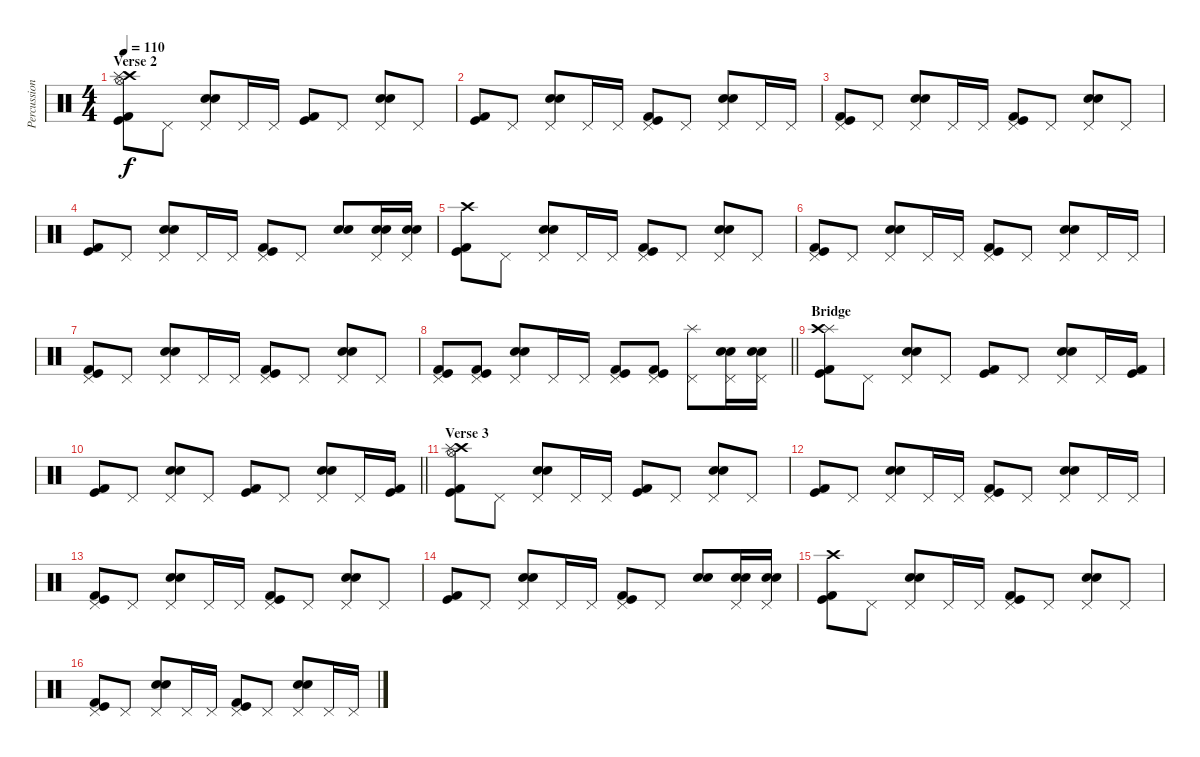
\track ("Percussion" "Percussion") {instrument percussion}
\staff {score}
\articulation defaults
\ts (4 4)
\section ("" "Verse 2")
\tempo 110
\clef neutral
\ks c
("Crash high (hit)" "Splash (hit)" "Hi-Hat (open)" "Kick (hit)" "Kick (hit) 2").8{dy f} "Pedal Hi-Hat (hit)".8 ("Snare (hit) 2" "Pedal Hi-Hat (hit)" "Electric Snare (hit)").8 "Pedal Hi-Hat (hit)".16 "Pedal Hi-Hat (hit)".16 ("Kick (hit)" "Kick (hit) 2").8 "Pedal Hi-Hat (hit)".8 ("Snare (hit) 2" "Pedal Hi-Hat (hit)" "Electric Snare (hit)").8 "Pedal Hi-Hat (hit)".8 |
("Kick (hit)" "Kick (hit) 2").8 "Pedal Hi-Hat (hit)".8 ("Snare (hit) 2" "Pedal Hi-Hat (hit)" "Electric Snare (hit)").8 "Pedal Hi-Hat (hit)".16 "Pedal Hi-Hat (hit)".16 ("Pedal Hi-Hat (hit)" "Kick (hit)" "Kick (hit) 2").8 "Pedal Hi-Hat (hit)".8 ("Snare (hit) 2" "Pedal Hi-Hat (hit)" "Electric Snare (hit)").8 "Pedal Hi-Hat (hit)".16 "Pedal Hi-Hat (hit)".16 |
("Pedal Hi-Hat (hit)" "Kick (hit)" "Kick (hit) 2").8 "Pedal Hi-Hat (hit)".8 ("Snare (hit) 2" "Pedal Hi-Hat (hit)" "Electric Snare (hit)").8 "Pedal Hi-Hat (hit)".16 "Pedal Hi-Hat (hit)".16 ("Pedal Hi-Hat (hit)" "Kick (hit)" "Kick (hit) 2").8 "Pedal Hi-Hat (hit)".8 ("Snare (hit) 2" "Pedal Hi-Hat (hit)" "Electric Snare (hit)").8 "Pedal Hi-Hat (hit)".8 |
("Kick (hit)" "Kick (hit) 2").8 "Pedal Hi-Hat (hit)".8 ("Snare (hit) 2" "Pedal Hi-Hat (hit)" "Electric Snare (hit)").8 "Pedal Hi-Hat (hit)".16 "Pedal Hi-Hat (hit)".16 ("Pedal Hi-Hat (hit)" "Kick (hit)" "Kick (hit) 2").8 "Pedal Hi-Hat (hit)".8 ("Snare (hit) 2" "Electric Snare (hit)").8 ("Snare (hit) 2" "Pedal Hi-Hat (hit)" "Electric Snare (hit)").16 ("Snare (hit) 2" "Pedal Hi-Hat (hit)" "Electric Snare (hit)").16 |
("Crash high (hit)" "Kick (hit)" "Kick (hit) 2").8 "Pedal Hi-Hat (hit)".8 ("Snare (hit) 2" "Pedal Hi-Hat (hit)" "Electric Snare (hit)").8 "Pedal Hi-Hat (hit)".16 "Pedal Hi-Hat (hit)".16 ("Pedal Hi-Hat (hit)" "Kick (hit)" "Kick (hit) 2").8 "Pedal Hi-Hat (hit)".8 ("Snare (hit) 2" "Pedal Hi-Hat (hit)" "Electric Snare (hit)").8 "Pedal Hi-Hat (hit)".8 |
("Pedal Hi-Hat (hit)" "Kick (hit)" "Kick (hit) 2").8 "Pedal Hi-Hat (hit)".8 ("Snare (hit) 2" "Pedal Hi-Hat (hit)" "Electric Snare (hit)").8 "Pedal Hi-Hat (hit)".16 "Pedal Hi-Hat (hit)".16 ("Pedal Hi-Hat (hit)" "Kick (hit)" "Kick (hit) 2").8 "Pedal Hi-Hat (hit)".8 ("Snare (hit) 2" "Pedal Hi-Hat (hit)" "Electric Snare (hit)").8 "Pedal Hi-Hat (hit)".16 "Pedal Hi-Hat (hit)".16 |
("Pedal Hi-Hat (hit)" "Kick (hit)" "Kick (hit) 2").8 "Pedal Hi-Hat (hit)".8 ("Snare (hit) 2" "Pedal Hi-Hat (hit)" "Electric Snare (hit)").8 "Pedal Hi-Hat (hit)".16 "Pedal Hi-Hat (hit)".16 ("Pedal Hi-Hat (hit)" "Kick (hit)" "Kick (hit) 2").8 "Pedal Hi-Hat (hit)".8 ("Snare (hit) 2" "Pedal Hi-Hat (hit)" "Electric Snare (hit)").8 "Pedal Hi-Hat (hit)".8 |
\barLineRight lightlight
("Pedal Hi-Hat (hit)" "Kick (hit)" "Kick (hit) 2").8 ("Pedal Hi-Hat (hit)" "Kick (hit)" "Kick (hit) 2").8 ("Snare (hit) 2" "Pedal Hi-Hat (hit)" "Electric Snare (hit)").8 "Pedal Hi-Hat (hit)".16 "Pedal Hi-Hat (hit)".16 ("Pedal Hi-Hat (hit)" "Kick (hit)" "Kick (hit) 2").8 ("Pedal Hi-Hat (hit)" "Kick (hit)" "Kick (hit) 2").8 ("Splash (hit)" "Pedal Hi-Hat (hit)").8 ("Snare (hit) 2" "Pedal Hi-Hat (hit)" "Electric Snare (hit)").16 ("Snare (hit) 2" "Pedal Hi-Hat (hit)" "Electric Snare (hit)").16 |
\section ("" "Bridge")
("Splash (hit)" "Crash high (hit)" "Kick (hit)" "Kick (hit) 2").8 "Pedal Hi-Hat (hit)".8 ("Electric Snare (hit)" "Snare (hit) 2" "Pedal Hi-Hat (hit)").8 "Pedal Hi-Hat (hit)".8 ("Kick (hit)" "Kick (hit) 2").8 "Pedal Hi-Hat (hit)".8 ("Electric Snare (hit)" "Snare (hit) 2" "Pedal Hi-Hat (hit)").8 "Pedal Hi-Hat (hit)".16 ("Kick (hit)" "Kick (hit) 2").16 |
\barLineRight lightlight
("Kick (hit)" "Kick (hit) 2").8 "Pedal Hi-Hat (hit)".8 ("Electric Snare (hit)" "Snare (hit) 2" "Pedal Hi-Hat (hit)").8 "Pedal Hi-Hat (hit)".8 ("Kick (hit)" "Kick (hit) 2").8 "Pedal Hi-Hat (hit)".8 ("Electric Snare (hit)" "Snare (hit) 2" "Pedal Hi-Hat (hit)").8 "Pedal Hi-Hat (hit)".16 ("Kick (hit)" "Kick (hit) 2").16 |
\section ("" "Verse 3")
("Crash high (hit)" "Splash (hit)" "Hi-Hat (open)" "Kick (hit)" "Kick (hit) 2").8 "Pedal Hi-Hat (hit)".8 ("Snare (hit) 2" "Pedal Hi-Hat (hit)" "Electric Snare (hit)").8 "Pedal Hi-Hat (hit)".16 "Pedal Hi-Hat (hit)".16 ("Kick (hit)" "Kick (hit) 2").8 "Pedal Hi-Hat (hit)".8 ("Snare (hit) 2" "Pedal Hi-Hat (hit)" "Electric Snare (hit)").8 "Pedal Hi-Hat (hit)".8 |
("Kick (hit)" "Kick (hit) 2").8 "Pedal Hi-Hat (hit)".8 ("Snare (hit) 2" "Pedal Hi-Hat (hit)" "Electric Snare (hit)").8 "Pedal Hi-Hat (hit)".16 "Pedal Hi-Hat (hit)".16 ("Pedal Hi-Hat (hit)" "Kick (hit)" "Kick (hit) 2").8 "Pedal Hi-Hat (hit)".8 ("Snare (hit) 2" "Pedal Hi-Hat (hit)" "Electric Snare (hit)").8 "Pedal Hi-Hat (hit)".16 "Pedal Hi-Hat (hit)".16 |
("Pedal Hi-Hat (hit)" "Kick (hit)" "Kick (hit) 2").8 "Pedal Hi-Hat (hit)".8 ("Snare (hit) 2" "Pedal Hi-Hat (hit)" "Electric Snare (hit)").8 "Pedal Hi-Hat (hit)".16 "Pedal Hi-Hat (hit)".16 ("Pedal Hi-Hat (hit)" "Kick (hit)" "Kick (hit) 2").8 "Pedal Hi-Hat (hit)".8 ("Snare (hit) 2" "Pedal Hi-Hat (hit)" "Electric Snare (hit)").8 "Pedal Hi-Hat (hit)".8 |
("Kick (hit)" "Kick (hit) 2").8 "Pedal Hi-Hat (hit)".8 ("Snare (hit) 2" "Pedal Hi-Hat (hit)" "Electric Snare (hit)").8 "Pedal Hi-Hat (hit)".16 "Pedal Hi-Hat (hit)".16 ("Pedal Hi-Hat (hit)" "Kick (hit)" "Kick (hit) 2").8 "Pedal Hi-Hat (hit)".8 ("Snare (hit) 2" "Electric Snare (hit)").8 ("Snare (hit) 2" "Pedal Hi-Hat (hit)" "Electric Snare (hit)").16 ("Snare (hit) 2" "Pedal Hi-Hat (hit)" "Electric Snare (hit)").16 |
("Crash high (hit)" "Kick (hit)" "Kick (hit) 2").8 "Pedal Hi-Hat (hit)".8 ("Snare (hit) 2" "Pedal Hi-Hat (hit)" "Electric Snare (hit)").8 "Pedal Hi-Hat (hit)".16 "Pedal Hi-Hat (hit)".16 ("Pedal Hi-Hat (hit)" "Kick (hit)" "Kick (hit) 2").8 "Pedal Hi-Hat (hit)".8 ("Snare (hit) 2" "Pedal Hi-Hat (hit)" "Electric Snare (hit)").8 "Pedal Hi-Hat (hit)".8 |
("Pedal Hi-Hat (hit)" "Kick (hit)" "Kick (hit) 2").8 "Pedal Hi-Hat (hit)".8 ("Snare (hit) 2" "Pedal Hi-Hat (hit)" "Electric Snare (hit)").8 "Pedal Hi-Hat (hit)".16 "Pedal Hi-Hat (hit)".16 ("Pedal Hi-Hat (hit)" "Kick (hit)" "Kick (hit) 2").8 "Pedal Hi-Hat (hit)".8 ("Snare (hit) 2" "Pedal Hi-Hat (hit)" "Electric Snare (hit)").8 "Pedal Hi-Hat (hit)".16 "Pedal Hi-Hat (hit)".16
